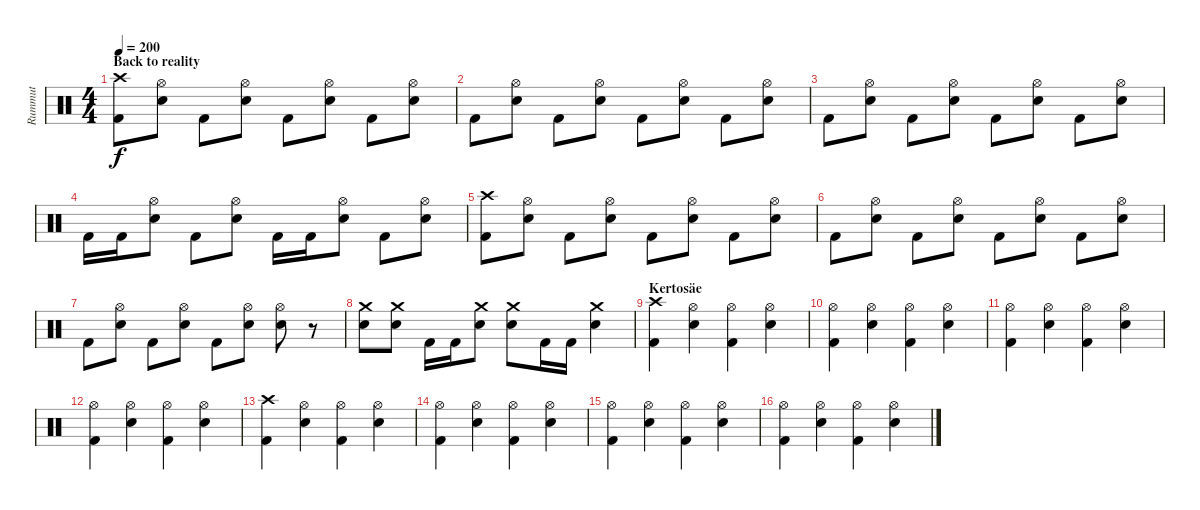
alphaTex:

\track ("Rummut" "Rummut") {instrument percussion}
\staff {score}
\articulation defaults
\ts (4 4)
\section ("" "Back to reality")
\tempo 200
\clef neutral
\ks c
("Crash high (hit)" "Kick (hit) 2").8{dy f} ("Hi-Hat (open)" "Electric Snare (hit)").8 "Kick (hit) 2".8 ("Hi-Hat (open)" "Electric Snare (hit)").8 "Kick (hit) 2".8 ("Hi-Hat (open)" "Electric Snare (hit)").8 "Kick (hit) 2".8 ("Hi-Hat (open)" "Electric Snare (hit)").8 |
"Kick (hit) 2".8 ("Hi-Hat (open)" "Electric Snare (hit)").8 "Kick (hit) 2".8 ("Hi-Hat (open)" "Electric Snare (hit)").8 "Kick (hit) 2".8 ("Hi-Hat (open)" "Electric Snare (hit)").8 "Kick (hit) 2".8 ("Hi-Hat (open)" "Electric Snare (hit)").8 |
"Kick (hit) 2".8 ("Hi-Hat (open)" "Electric Snare (hit)").8 "Kick (hit) 2".8 ("Hi-Hat (open)" "Electric Snare (hit)").8 "Kick (hit) 2".8 ("Hi-Hat (open)" "Electric Snare (hit)").8 "Kick (hit) 2".8 ("Hi-Hat (open)" "Electric Snare (hit)").8 |
"Kick (hit) 2".16 "Kick (hit) 2".16 ("Hi-Hat (open)" "Electric Snare (hit)").8 "Kick (hit) 2".8 ("Hi-Hat (open)" "Electric Snare (hit)").8 "Kick (hit) 2".16 "Kick (hit) 2".16 ("Hi-Hat (open)" "Electric Snare (hit)").8 "Kick (hit) 2".8 ("Hi-Hat (open)" "Electric Snare (hit)").8 |
("Crash high (hit)" "Kick (hit) 2").8 ("Hi-Hat (open)" "Electric Snare (hit)").8 "Kick (hit) 2".8 ("Hi-Hat (open)" "Electric Snare (hit)").8 "Kick (hit) 2".8 ("Hi-Hat (open)" "Electric Snare (hit)").8 "Kick (hit) 2".8 ("Hi-Hat (open)" "Electric Snare (hit)").8 |
"Kick (hit) 2".8 ("Hi-Hat (open)" "Electric Snare (hit)").8 "Kick (hit) 2".8 ("Hi-Hat (open)" "Electric Snare (hit)").8 "Kick (hit) 2".8 ("Hi-Hat (open)" "Electric Snare (hit)").8 "Kick (hit) 2".8 ("Hi-Hat (open)" "Electric Snare (hit)").8 |
"Kick (hit) 2".8 ("Hi-Hat (open)" "Electric Snare (hit)").8 "Kick (hit) 2".8 ("Hi-Hat (open)" "Electric Snare (hit)").8 "Kick (hit) 2".8 ("Hi-Hat (open)" "Electric Snare (hit)").8 ("Hi-Hat (open)" "Electric Snare (hit)").8 r.8 |
("Crash medium (hit)" "Electric Snare (hit)").8 ("Crash medium (hit)" "Electric Snare (hit)").8 "Kick (hit) 2".16 "Kick (hit) 2".16 ("Crash medium (hit)" "Electric Snare (hit)").8 ("Crash medium (hit)" "Electric Snare (hit)").8 "Kick (hit) 2".16 "Kick (hit) 2".16 ("Crash medium (hit)" "Electric Snare (hit)").4 |
\section ("" "Kertosäe")
("Crash high (hit)" "Kick (hit) 2").4 ("Hi-Hat (open)" "Electric Snare (hit)").4 ("Hi-Hat (open)" "Kick (hit) 2").4 ("Hi-Hat (open)" "Electric Snare (hit)").4 |
("Hi-Hat (open)" "Kick (hit) 2").4 ("Hi-Hat (open)" "Electric Snare (hit)").4 ("Hi-Hat (open)" "Kick (hit) 2").4 ("Hi-Hat (open)" "Electric Snare (hit)").4 |
("Hi-Hat (open)" "Kick (hit) 2").4 ("Hi-Hat (open)" "Electric Snare (hit)").4 ("Hi-Hat (open)" "Kick (hit) 2").4 ("Hi-Hat (open)" "Electric Snare (hit)").4 |
("Hi-Hat (open)" "Kick (hit) 2").4 ("Hi-Hat (open)" "Electric Snare (hit)").4 ("Hi-Hat (open)" "Kick (hit) 2").4 ("Hi-Hat (open)" "Electric Snare (hit)").4 |
("Crash high (hit)" "Kick (hit) 2").4 ("Hi-Hat (open)" "Electric Snare (hit)").4 ("Hi-Hat (open)" "Kick (hit) 2").4 ("Hi-Hat (open)" "Electric Snare (hit)").4 |
("Hi-Hat (open)" "Kick (hit) 2").4 ("Hi-Hat (open)" "Electric Snare (hit)").4 ("Hi-Hat (open)" "Kick (hit) 2").4 ("Hi-Hat (open)" "Electric Snare (hit)").4 |
("Hi-Hat (open)" "Kick (hit) 2").4 ("Hi-Hat (open)" "Electric Snare (hit)").4 ("Hi-Hat (open)" "Kick (hit) 2").4 ("Hi-Hat (open)" "Electric Snare (hit)").4 |
("Hi-Hat (open)" "Kick (hit) 2").4 ("Hi-Hat (open)" "Electric Snare (hit)").4 ("Hi-Hat (open)" "Kick (hit) 2").4 ("Hi-Hat (open)" "Electric Snare (hit)").4
